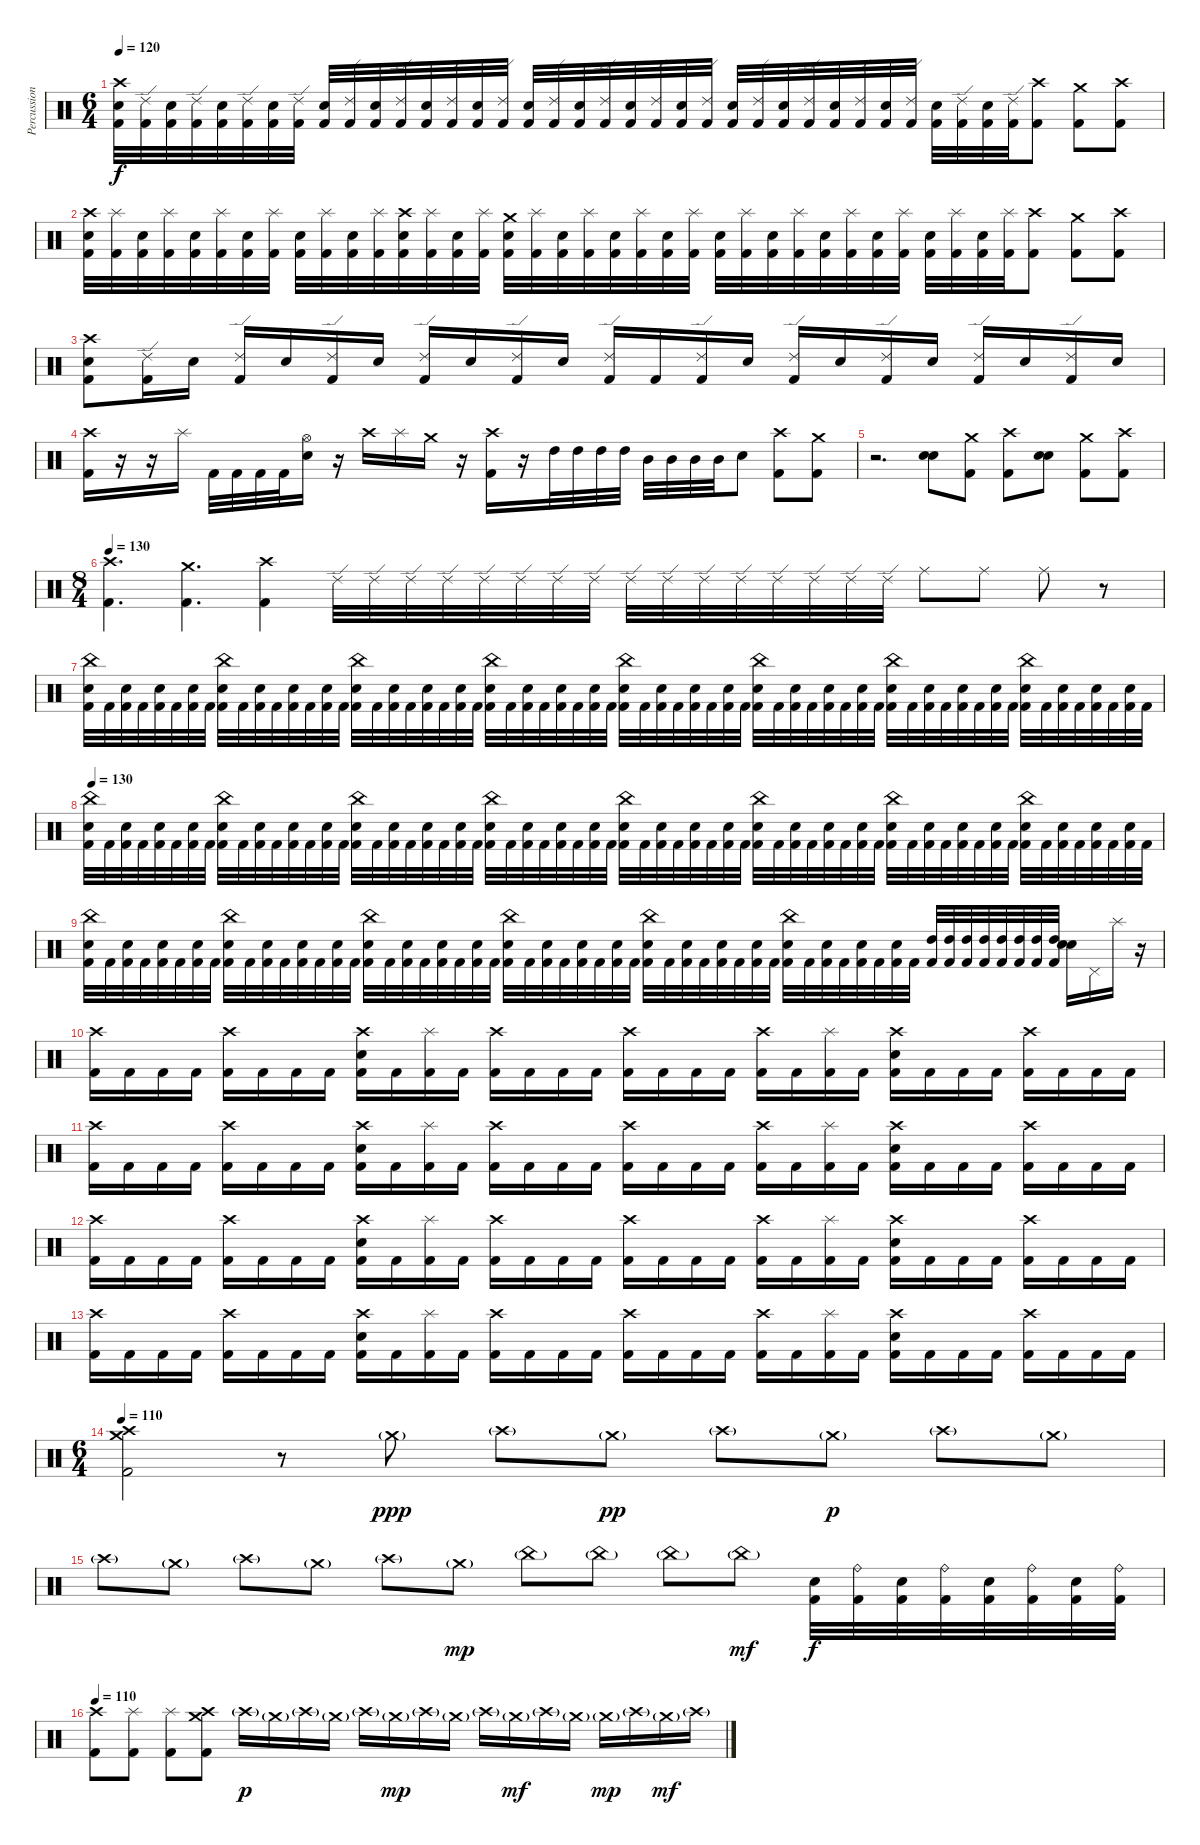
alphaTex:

\track ("Percussion" "Percussion") {instrument percussion}
\staff {score}
\articulation defaults
\ts (6 4)
\tempo 120
\clef neutral
\ks c
("Kick (hit) 2" "Electric Snare (hit)" "Crash high (hit)").32{dy f} ("Kick (hit) 2" "Ride (edge) 2").32 ("Kick (hit) 2" "Electric Snare (hit)").32 ("Kick (hit) 2" "Ride (edge) 2").32 ("Kick (hit) 2" "Electric Snare (hit)").32 ("Kick (hit) 2" "Ride (edge) 2").32 ("Kick (hit) 2" "Electric Snare (hit)").32 ("Kick (hit) 2" "Ride (edge) 2").32 ("Kick (hit) 2" "Electric Snare (hit)").32 ("Kick (hit) 2" "Ride (edge) 2").32 ("Kick (hit) 2" "Electric Snare (hit)").32 ("Kick (hit) 2" "Ride (edge) 2").32 ("Kick (hit) 2" "Electric Snare (hit)").32 ("Kick (hit) 2" "Ride (edge) 2").32 ("Kick (hit) 2" "Electric Snare (hit)").32 ("Kick (hit) 2" "Ride (edge) 2").32 ("Kick (hit) 2" "Electric Snare (hit)").32 ("Kick (hit) 2" "Ride (edge) 2").32 ("Kick (hit) 2" "Electric Snare (hit)").32 ("Kick (hit) 2" "Ride (edge) 2").32 ("Kick (hit) 2" "Electric Snare (hit)").32 ("Kick (hit) 2" "Ride (edge) 2").32 ("Kick (hit) 2" "Electric Snare (hit)").32 ("Kick (hit) 2" "Ride (edge) 2").32 ("Kick (hit) 2" "Electric Snare (hit)").32 ("Kick (hit) 2" "Ride (edge) 2").32 ("Kick (hit) 2" "Electric Snare (hit)").32 ("Kick (hit) 2" "Ride (edge) 2").32 ("Kick (hit) 2" "Electric Snare (hit)").32 ("Kick (hit) 2" "Ride (edge) 2").32 ("Kick (hit) 2" "Electric Snare (hit)").32 ("Kick (hit) 2" "Ride (edge) 2").32 ("Kick (hit) 2" "Electric Snare (hit)").32 ("Kick (hit) 2" "Ride (edge) 2").32 ("Kick (hit) 2" "Electric Snare (hit)").32 ("Kick (hit) 2" "Ride (edge) 2").32 ("Kick (hit) 2" "Crash high (hit)").8 ("Kick (hit) 2" "Crash medium (hit)").8 ("Kick (hit) 2" "Crash high (hit)").8 |
("Kick (hit) 2" "Electric Snare (hit)" "Crash high (hit)").32 ("Kick (hit) 2" "Splash (hit)").32 ("Kick (hit) 2" "Electric Snare (hit)").32 ("Kick (hit) 2" "Splash (hit)").32 ("Kick (hit) 2" "Electric Snare (hit)").32 ("Kick (hit) 2" "Splash (hit)").32 ("Kick (hit) 2" "Electric Snare (hit)").32 ("Kick (hit) 2" "Splash (hit)").32 ("Kick (hit) 2" "Electric Snare (hit)").32 ("Kick (hit) 2" "Splash (hit)").32 ("Kick (hit) 2" "Electric Snare (hit)").32 ("Kick (hit) 2" "Splash (hit)").32 ("Kick (hit) 2" "Electric Snare (hit)" "Crash high (hit)").32 ("Kick (hit) 2" "Splash (hit)").32 ("Kick (hit) 2" "Electric Snare (hit)").32 ("Kick (hit) 2" "Splash (hit)").32 ("Kick (hit) 2" "Electric Snare (hit)" "Crash medium (hit)").32 ("Kick (hit) 2" "Splash (hit)").32 ("Kick (hit) 2" "Electric Snare (hit)").32 ("Kick (hit) 2" "Splash (hit)").32 ("Kick (hit) 2" "Electric Snare (hit)").32 ("Kick (hit) 2" "Splash (hit)").32 ("Kick (hit) 2" "Electric Snare (hit)").32 ("Kick (hit) 2" "Splash (hit)").32 ("Kick (hit) 2" "Electric Snare (hit)").32 ("Kick (hit) 2" "Splash (hit)").32 ("Kick (hit) 2" "Electric Snare (hit)").32 ("Kick (hit) 2" "Splash (hit)").32 ("Kick (hit) 2" "Electric Snare (hit)").32 ("Kick (hit) 2" "Splash (hit)").32 ("Kick (hit) 2" "Electric Snare (hit)").32 ("Kick (hit) 2" "Splash (hit)").32 ("Kick (hit) 2" "Electric Snare (hit)").32 ("Kick (hit) 2" "Splash (hit)").32 ("Kick (hit) 2" "Electric Snare (hit)").32 ("Kick (hit) 2" "Splash (hit)").32 ("Kick (hit) 2" "Crash high (hit)").8 ("Kick (hit) 2" "Crash medium (hit)").8 ("Kick (hit) 2" "Crash high (hit)").8 |
("Kick (hit) 2" "Electric Snare (hit)" "Crash high (hit)").8 ("Kick (hit) 2" "Ride (edge) 2").16 "Electric Snare (hit)".16 ("Kick (hit) 2" "Ride (edge) 2").16 "Electric Snare (hit)".16 ("Kick (hit) 2" "Ride (edge) 2").16 "Electric Snare (hit)".16 ("Kick (hit) 2" "Ride (edge) 2").16 "Electric Snare (hit)".16 ("Kick (hit) 2" "Ride (edge) 2").16 "Electric Snare (hit)".16 ("Kick (hit) 2" "Ride (edge) 2").16 "Kick (hit) 2".16 ("Kick (hit) 2" "Ride (edge) 2").16 "Electric Snare (hit)".16 ("Kick (hit) 2" "Ride (edge) 2").16 "Electric Snare (hit)".16 ("Kick (hit) 2" "Ride (edge) 2").16 "Electric Snare (hit)".16 ("Kick (hit) 2" "Ride (edge) 2").16 "Electric Snare (hit)".16 ("Kick (hit) 2" "Ride (edge) 2").16 "Electric Snare (hit)".16 |
("Kick (hit) 2" "Crash high (hit)").16 r.16 r.16 "Splash (hit)".16 "Kick (hit) 2".32 "Kick (hit) 2".32 "Kick (hit) 2".32 "Kick (hit) 2".32 ("Electric Snare (hit)" "Hi-Hat (open)").16 r.16 "Crash high (hit)".16 "Splash (hit)".16 "Crash medium (hit)".16 r.16 ("Kick (hit) 2" "Crash high (hit)").16 r.16 "High Tom (hit)".32 "High Tom (hit)".32 "High Tom (hit)".32 "High Tom (hit)".32 "Mid Tom (hit)".32 "Mid Tom (hit)".32 "Mid Tom (hit)".32 "Mid Tom (hit)".32 "Electric Snare (hit)".8 ("Kick (hit) 2" "Crash high (hit)").8 ("Kick (hit) 2" "Crash medium (hit)").8 |
r.2{d} ("Electric Snare (hit)" "Electric Snare (hit)").8 ("Kick (hit) 2" "Crash medium (hit)").8 ("Kick (hit) 2" "Crash high (hit)").8 ("Electric Snare (hit)" "Electric Snare (hit)").8 ("Kick (hit) 2" "Crash medium (hit)").8 ("Kick (hit) 2" "Crash high (hit)").8 |
\ts (8 4)
\tempo 130
("Kick (hit) 2" "Crash high (hit)").4{d} ("Kick (hit) 2" "Crash medium (hit)").4{d} ("Kick (hit) 2" "Crash high (hit)").4 "Ride (edge) 2".32 "Ride (edge) 2".32 "Ride (edge) 2".32 "Ride (edge) 2".32 "Ride (edge) 2".32 "Ride (edge) 2".32 "Ride (edge) 2".32 "Ride (edge) 2".32 "Ride (edge) 2".32 "Ride (edge) 2".32 "Ride (edge) 2".32 "Ride (edge) 2".32 "Ride (edge) 2".32 "Ride (edge) 2".32 "Ride (edge) 2".32 "Ride (edge) 2".32 "Ride (middle)".8 "Ride (middle)".8 "Ride (middle)".8 r.8 |
("Kick (hit) 2" "Electric Snare (hit)" "China (hit)").32 "Kick (hit) 2".32 ("Kick (hit) 2" "Electric Snare (hit)").32 "Kick (hit) 2".32 ("Kick (hit) 2" "Electric Snare (hit)").32 "Kick (hit) 2".32 ("Kick (hit) 2" "Electric Snare (hit)").32 "Kick (hit) 2".32 ("Kick (hit) 2" "Electric Snare (hit)" "China (hit)").32 "Kick (hit) 2".32 ("Kick (hit) 2" "Electric Snare (hit)").32 "Kick (hit) 2".32 ("Kick (hit) 2" "Electric Snare (hit)").32 "Kick (hit) 2".32 ("Kick (hit) 2" "Electric Snare (hit)").32 "Kick (hit) 2".32 ("Kick (hit) 2" "Electric Snare (hit)" "China (hit)").32 "Kick (hit) 2".32 ("Kick (hit) 2" "Electric Snare (hit)").32 "Kick (hit) 2".32 ("Kick (hit) 2" "Electric Snare (hit)").32 "Kick (hit) 2".32 ("Kick (hit) 2" "Electric Snare (hit)").32 "Kick (hit) 2".32 ("Kick (hit) 2" "Electric Snare (hit)" "China (hit)").32 "Kick (hit) 2".32 ("Kick (hit) 2" "Electric Snare (hit)").32 "Kick (hit) 2".32 ("Kick (hit) 2" "Electric Snare (hit)").32 "Kick (hit) 2".32 ("Kick (hit) 2" "Electric Snare (hit)").32 "Kick (hit) 2".32 ("Kick (hit) 2" "Electric Snare (hit)" "China (hit)").32 "Kick (hit) 2".32 ("Kick (hit) 2" "Electric Snare (hit)").32 "Kick (hit) 2".32 ("Kick (hit) 2" "Electric Snare (hit)").32 "Kick (hit) 2".32 ("Kick (hit) 2" "Electric Snare (hit)").32 "Kick (hit) 2".32 ("Kick (hit) 2" "Electric Snare (hit)" "China (hit)").32 "Kick (hit) 2".32 ("Kick (hit) 2" "Electric Snare (hit)").32 "Kick (hit) 2".32 ("Kick (hit) 2" "Electric Snare (hit)").32 "Kick (hit) 2".32 ("Kick (hit) 2" "Electric Snare (hit)").32 "Kick (hit) 2".32 ("Kick (hit) 2" "Electric Snare (hit)" "China (hit)").32 "Kick (hit) 2".32 ("Kick (hit) 2" "Electric Snare (hit)").32 "Kick (hit) 2".32 ("Kick (hit) 2" "Electric Snare (hit)").32 "Kick (hit) 2".32 ("Kick (hit) 2" "Electric Snare (hit)").32 "Kick (hit) 2".32 ("Kick (hit) 2" "Electric Snare (hit)" "China (hit)").32 "Kick (hit) 2".32 ("Kick (hit) 2" "Electric Snare (hit)").32 "Kick (hit) 2".32 ("Kick (hit) 2" "Electric Snare (hit)").32 "Kick (hit) 2".32 ("Kick (hit) 2" "Electric Snare (hit)").32 "Kick (hit) 2".32 |
\tempo 130
("Kick (hit) 2" "Electric Snare (hit)" "China (hit)").32 "Kick (hit) 2".32 ("Kick (hit) 2" "Electric Snare (hit)").32 "Kick (hit) 2".32 ("Kick (hit) 2" "Electric Snare (hit)").32 "Kick (hit) 2".32 ("Kick (hit) 2" "Electric Snare (hit)").32 "Kick (hit) 2".32 ("Kick (hit) 2" "Electric Snare (hit)" "China (hit)").32 "Kick (hit) 2".32 ("Kick (hit) 2" "Electric Snare (hit)").32 "Kick (hit) 2".32 ("Kick (hit) 2" "Electric Snare (hit)").32 "Kick (hit) 2".32 ("Kick (hit) 2" "Electric Snare (hit)").32 "Kick (hit) 2".32 ("Kick (hit) 2" "Electric Snare (hit)" "China (hit)").32 "Kick (hit) 2".32 ("Kick (hit) 2" "Electric Snare (hit)").32 "Kick (hit) 2".32 ("Kick (hit) 2" "Electric Snare (hit)").32 "Kick (hit) 2".32 ("Kick (hit) 2" "Electric Snare (hit)").32 "Kick (hit) 2".32 ("Kick (hit) 2" "Electric Snare (hit)" "China (hit)").32 "Kick (hit) 2".32 ("Kick (hit) 2" "Electric Snare (hit)").32 "Kick (hit) 2".32 ("Kick (hit) 2" "Electric Snare (hit)").32 "Kick (hit) 2".32 ("Kick (hit) 2" "Electric Snare (hit)").32 "Kick (hit) 2".32 ("Kick (hit) 2" "Electric Snare (hit)" "China (hit)").32 "Kick (hit) 2".32 ("Kick (hit) 2" "Electric Snare (hit)").32 "Kick (hit) 2".32 ("Kick (hit) 2" "Electric Snare (hit)").32 "Kick (hit) 2".32 ("Kick (hit) 2" "Electric Snare (hit)").32 "Kick (hit) 2".32 ("Kick (hit) 2" "Electric Snare (hit)" "China (hit)").32 "Kick (hit) 2".32 ("Kick (hit) 2" "Electric Snare (hit)").32 "Kick (hit) 2".32 ("Kick (hit) 2" "Electric Snare (hit)").32 "Kick (hit) 2".32 ("Kick (hit) 2" "Electric Snare (hit)").32 "Kick (hit) 2".32 ("Kick (hit) 2" "Electric Snare (hit)" "China (hit)").32 "Kick (hit) 2".32 ("Kick (hit) 2" "Electric Snare (hit)").32 "Kick (hit) 2".32 ("Kick (hit) 2" "Electric Snare (hit)").32 "Kick (hit) 2".32 ("Kick (hit) 2" "Electric Snare (hit)").32 "Kick (hit) 2".32 ("Kick (hit) 2" "Electric Snare (hit)" "China (hit)").32 "Kick (hit) 2".32 ("Kick (hit) 2" "Electric Snare (hit)").32 "Kick (hit) 2".32 ("Kick (hit) 2" "Electric Snare (hit)").32 "Kick (hit) 2".32 ("Kick (hit) 2" "Electric Snare (hit)").32 "Kick (hit) 2".32 |
("Kick (hit) 2" "Electric Snare (hit)" "China (hit)").32 "Kick (hit) 2".32 ("Kick (hit) 2" "Electric Snare (hit)").32 "Kick (hit) 2".32 ("Kick (hit) 2" "Electric Snare (hit)").32 "Kick (hit) 2".32 ("Kick (hit) 2" "Electric Snare (hit)").32 "Kick (hit) 2".32 ("Kick (hit) 2" "Electric Snare (hit)" "China (hit)").32 "Kick (hit) 2".32 ("Kick (hit) 2" "Electric Snare (hit)").32 "Kick (hit) 2".32 ("Kick (hit) 2" "Electric Snare (hit)").32 "Kick (hit) 2".32 ("Kick (hit) 2" "Electric Snare (hit)").32 "Kick (hit) 2".32 ("Kick (hit) 2" "Electric Snare (hit)" "China (hit)").32 "Kick (hit) 2".32 ("Kick (hit) 2" "Electric Snare (hit)").32 "Kick (hit) 2".32 ("Kick (hit) 2" "Electric Snare (hit)").32 "Kick (hit) 2".32 ("Kick (hit) 2" "Electric Snare (hit)").32 "Kick (hit) 2".32 ("Kick (hit) 2" "Electric Snare (hit)" "China (hit)").32 "Kick (hit) 2".32 ("Kick (hit) 2" "Electric Snare (hit)").32 "Kick (hit) 2".32 ("Kick (hit) 2" "Electric Snare (hit)").32 "Kick (hit) 2".32 ("Kick (hit) 2" "Electric Snare (hit)").32 "Kick (hit) 2".32 ("Kick (hit) 2" "Electric Snare (hit)" "China (hit)").32 "Kick (hit) 2".32 ("Kick (hit) 2" "Electric Snare (hit)").32 "Kick (hit) 2".32 ("Kick (hit) 2" "Electric Snare (hit)").32 "Kick (hit) 2".32 ("Kick (hit) 2" "Electric Snare (hit)").32 "Kick (hit) 2".32 ("Kick (hit) 2" "Electric Snare (hit)" "China (hit)").32 "Kick (hit) 2".32 ("Kick (hit) 2" "Electric Snare (hit)").32 "Kick (hit) 2".32 ("Kick (hit) 2" "Electric Snare (hit)").32 "Kick (hit) 2".32 ("Kick (hit) 2" "Electric Snare (hit)").32 "Kick (hit) 2".32 ("Kick (hit) 2" "High Tom (hit)").32 ("Kick (hit) 2" "High Tom (hit)").32 ("Kick (hit) 2" "High Tom (hit)").32 ("Kick (hit) 2" "High Tom (hit)").32 ("Kick (hit) 2" "High Tom (hit)").32 ("Kick (hit) 2" "High Tom (hit)").32 ("Kick (hit) 2" "High Tom (hit)").32 ("Kick (hit) 2" "High Tom (hit)").32 ("Electric Snare (hit)" "Electric Snare (hit)").16 "Pedal Hi-Hat (hit)".16 "Splash (hit)".16 r.16 |
("Kick (hit) 2" "Crash high (hit)").16 "Kick (hit) 2".16 "Kick (hit) 2".16 "Kick (hit) 2".16 ("Kick (hit) 2" "Crash high (hit)").16 "Kick (hit) 2".16 "Kick (hit) 2".16 "Kick (hit) 2".16 ("Kick (hit) 2" "Electric Snare (hit)" "Crash high (hit)").16 "Kick (hit) 2".16 ("Kick (hit) 2" "Splash (hit)").16 "Kick (hit) 2".16 ("Kick (hit) 2" "Crash high (hit)").16 "Kick (hit) 2".16 "Kick (hit) 2".16 "Kick (hit) 2".16 ("Kick (hit) 2" "Crash high (hit)").16 "Kick (hit) 2".16 "Kick (hit) 2".16 "Kick (hit) 2".16 ("Kick (hit) 2" "Crash high (hit)").16 "Kick (hit) 2".16 ("Kick (hit) 2" "Splash (hit)").16 "Kick (hit) 2".16 ("Kick (hit) 2" "Electric Snare (hit)" "Crash high (hit)").16 "Kick (hit) 2".16 "Kick (hit) 2".16 "Kick (hit) 2".16 ("Kick (hit) 2" "Crash high (hit)").16 "Kick (hit) 2".16 "Kick (hit) 2".16 "Kick (hit) 2".16 |
("Kick (hit) 2" "Crash high (hit)").16 "Kick (hit) 2".16 "Kick (hit) 2".16 "Kick (hit) 2".16 ("Kick (hit) 2" "Crash high (hit)").16 "Kick (hit) 2".16 "Kick (hit) 2".16 "Kick (hit) 2".16 ("Kick (hit) 2" "Electric Snare (hit)" "Crash high (hit)").16 "Kick (hit) 2".16 ("Kick (hit) 2" "Splash (hit)").16 "Kick (hit) 2".16 ("Kick (hit) 2" "Crash high (hit)").16 "Kick (hit) 2".16 "Kick (hit) 2".16 "Kick (hit) 2".16 ("Kick (hit) 2" "Crash high (hit)").16 "Kick (hit) 2".16 "Kick (hit) 2".16 "Kick (hit) 2".16 ("Kick (hit) 2" "Crash high (hit)").16 "Kick (hit) 2".16 ("Kick (hit) 2" "Splash (hit)").16 "Kick (hit) 2".16 ("Kick (hit) 2" "Electric Snare (hit)" "Crash high (hit)").16 "Kick (hit) 2".16 "Kick (hit) 2".16 "Kick (hit) 2".16 ("Kick (hit) 2" "Crash high (hit)").16 "Kick (hit) 2".16 "Kick (hit) 2".16 "Kick (hit) 2".16 |
("Kick (hit) 2" "Crash high (hit)").16 "Kick (hit) 2".16 "Kick (hit) 2".16 "Kick (hit) 2".16 ("Kick (hit) 2" "Crash high (hit)").16 "Kick (hit) 2".16 "Kick (hit) 2".16 "Kick (hit) 2".16 ("Kick (hit) 2" "Electric Snare (hit)" "Crash high (hit)").16 "Kick (hit) 2".16 ("Kick (hit) 2" "Splash (hit)").16 "Kick (hit) 2".16 ("Kick (hit) 2" "Crash high (hit)").16 "Kick (hit) 2".16 "Kick (hit) 2".16 "Kick (hit) 2".16 ("Kick (hit) 2" "Crash high (hit)").16 "Kick (hit) 2".16 "Kick (hit) 2".16 "Kick (hit) 2".16 ("Kick (hit) 2" "Crash high (hit)").16 "Kick (hit) 2".16 ("Kick (hit) 2" "Splash (hit)").16 "Kick (hit) 2".16 ("Kick (hit) 2" "Electric Snare (hit)" "Crash high (hit)").16 "Kick (hit) 2".16 "Kick (hit) 2".16 "Kick (hit) 2".16 ("Kick (hit) 2" "Crash high (hit)").16 "Kick (hit) 2".16 "Kick (hit) 2".16 "Kick (hit) 2".16 |
("Kick (hit) 2" "Crash high (hit)").16 "Kick (hit) 2".16 "Kick (hit) 2".16 "Kick (hit) 2".16 ("Kick (hit) 2" "Crash high (hit)").16 "Kick (hit) 2".16 "Kick (hit) 2".16 "Kick (hit) 2".16 ("Kick (hit) 2" "Electric Snare (hit)" "Crash high (hit)").16 "Kick (hit) 2".16 ("Kick (hit) 2" "Splash (hit)").16 "Kick (hit) 2".16 ("Kick (hit) 2" "Crash high (hit)").16 "Kick (hit) 2".16 "Kick (hit) 2".16 "Kick (hit) 2".16 ("Kick (hit) 2" "Crash high (hit)").16 "Kick (hit) 2".16 "Kick (hit) 2".16 "Kick (hit) 2".16 ("Kick (hit) 2" "Crash high (hit)").16 "Kick (hit) 2".16 ("Kick (hit) 2" "Splash (hit)").16 "Kick (hit) 2".16 ("Kick (hit) 2" "Electric Snare (hit)" "Crash high (hit)").16 "Kick (hit) 2".16 "Kick (hit) 2".16 "Kick (hit) 2".16 ("Kick (hit) 2" "Crash high (hit)").16 "Kick (hit) 2".16 "Kick (hit) 2".16 "Kick (hit) 2".16 |
\ts (6 4)
\tempo 110
("Kick (hit) 2" "Crash medium (hit)" "Crash high (hit)").2 r.8 "Crash medium (hit)"{g}.8{dy ppp} "Crash high (hit)"{g}.8 "Crash medium (hit)"{g}.8{dy pp} "Crash high (hit)"{g}.8 "Crash medium (hit)"{g}.8{dy p} "Crash high (hit)"{g}.8 "Crash medium (hit)"{g}.8 |
"Crash high (hit)"{g}.8 "Crash medium (hit)"{g}.8 "Crash high (hit)"{g}.8 "Crash medium (hit)"{g}.8 "Crash high (hit)"{g}.8 "Crash medium (hit)"{g}.8{dy mp} "China (hit)"{g}.8 "China (hit)"{g}.8 "China (hit)"{g}.8 "China (hit)"{g}.8{dy mf} ("Kick (hit) 2" "Electric Snare (hit)").32{dy f} ("Kick (hit) 2" "Ride (bell)").32 ("Kick (hit) 2" "Electric Snare (hit)").32 ("Kick (hit) 2" "Ride (bell)").32 ("Kick (hit) 2" "Electric Snare (hit)").32 ("Kick (hit) 2" "Ride (bell)").32 ("Kick (hit) 2" "Electric Snare (hit)").32 ("Kick (hit) 2" "Ride (bell)").32 |
\tempo 110
("Kick (hit) 2" "Crash high (hit)").8 ("Kick (hit) 2" "Splash (hit)").8 ("Kick (hit) 2" "Splash (hit)").8 ("Kick (hit) 2" "Crash high (hit)" "Crash medium (hit)").8 "Crash high (hit)"{g}.16{dy p} "Crash medium (hit)"{g}.16 "Crash high (hit)"{g}.16 "Crash medium (hit)"{g}.16 "Crash high (hit)"{g}.16 "Crash medium (hit)"{g}.16{dy mp} "Crash high (hit)"{g}.16 "Crash medium (hit)"{g}.16 "Crash high (hit)"{g}.16 "Crash medium (hit)"{g}.16{dy mf} "Crash high (hit)"{g}.16 "Crash medium (hit)"{g}.16 "Crash medium (hit)"{g}.16{dy mp} "Crash high (hit)"{g}.16 "Crash medium (hit)"{g}.16{dy mf} "Crash high (hit)"{g}.16
